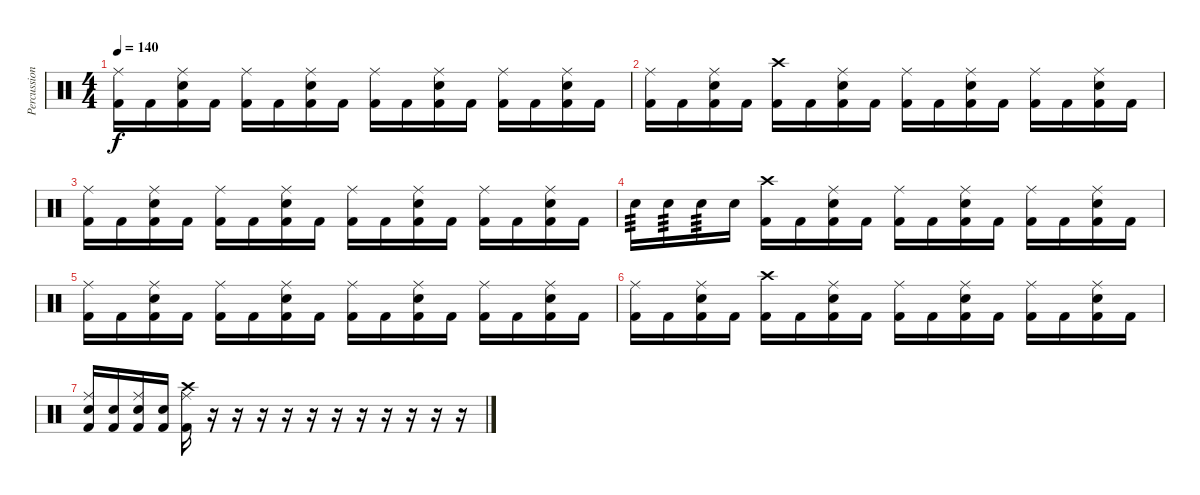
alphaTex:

\track ("Percussion" "Percussion") {instrument percussion}
\staff {score}
\articulation defaults
\ts (4 4)
\tempo 140
\clef neutral
\ks c
("Kick (hit) 2" "Ride (middle)").16{dy f} "Kick (hit) 2".16 ("Kick (hit) 2" "Electric Snare (hit)" "Ride (middle)").16 "Kick (hit) 2".16 ("Kick (hit) 2" "Ride (middle)").16 "Kick (hit) 2".16 ("Kick (hit) 2" "Electric Snare (hit)" "Ride (middle)").16 "Kick (hit) 2".16 ("Kick (hit) 2" "Ride (middle)").16 "Kick (hit) 2".16 ("Kick (hit) 2" "Electric Snare (hit)" "Ride (middle)").16 "Kick (hit) 2".16 ("Kick (hit) 2" "Ride (middle)").16 "Kick (hit) 2".16 ("Kick (hit) 2" "Electric Snare (hit)" "Ride (middle)").16 "Kick (hit) 2".16 |
("Kick (hit) 2" "Ride (middle)").16 "Kick (hit) 2".16 ("Kick (hit) 2" "Electric Snare (hit)" "Ride (middle)").16 "Kick (hit) 2".16 ("Kick (hit) 2" "Crash high (hit)").16 "Kick (hit) 2".16 ("Kick (hit) 2" "Electric Snare (hit)" "Ride (middle)").16 "Kick (hit) 2".16 ("Kick (hit) 2" "Ride (middle)").16 "Kick (hit) 2".16 ("Kick (hit) 2" "Electric Snare (hit)" "Ride (middle)").16 "Kick (hit) 2".16 ("Kick (hit) 2" "Ride (middle)").16 "Kick (hit) 2".16 ("Kick (hit) 2" "Electric Snare (hit)" "Ride (middle)").16 "Kick (hit) 2".16 |
("Kick (hit) 2" "Ride (middle)").16 "Kick (hit) 2".16 ("Kick (hit) 2" "Electric Snare (hit)" "Ride (middle)").16 "Kick (hit) 2".16 ("Kick (hit) 2" "Ride (middle)").16 "Kick (hit) 2".16 ("Kick (hit) 2" "Electric Snare (hit)" "Ride (middle)").16 "Kick (hit) 2".16 ("Kick (hit) 2" "Ride (middle)").16 "Kick (hit) 2".16 ("Kick (hit) 2" "Electric Snare (hit)" "Ride (middle)").16 "Kick (hit) 2".16 ("Kick (hit) 2" "Ride (middle)").16 "Kick (hit) 2".16 ("Kick (hit) 2" "Electric Snare (hit)" "Ride (middle)").16 "Kick (hit) 2".16 |
"Electric Snare (hit)".16{tp 3} "Electric Snare (hit)".16{tp 3} "Electric Snare (hit)".16{tp 3} "Electric Snare (hit)".16 ("Kick (hit) 2" "Crash high (hit)").16 "Kick (hit) 2".16 ("Kick (hit) 2" "Electric Snare (hit)" "Ride (middle)").16 "Kick (hit) 2".16 ("Kick (hit) 2" "Ride (middle)").16 "Kick (hit) 2".16 ("Kick (hit) 2" "Electric Snare (hit)" "Ride (middle)").16 "Kick (hit) 2".16 ("Kick (hit) 2" "Ride (middle)").16 "Kick (hit) 2".16 ("Kick (hit) 2" "Electric Snare (hit)" "Ride (middle)").16 "Kick (hit) 2".16 |
("Kick (hit) 2" "Ride (middle)").16 "Kick (hit) 2".16 ("Kick (hit) 2" "Electric Snare (hit)" "Ride (middle)").16 "Kick (hit) 2".16 ("Kick (hit) 2" "Ride (middle)").16 "Kick (hit) 2".16 ("Kick (hit) 2" "Electric Snare (hit)" "Ride (middle)").16 "Kick (hit) 2".16 ("Kick (hit) 2" "Ride (middle)").16 "Kick (hit) 2".16 ("Kick (hit) 2" "Electric Snare (hit)" "Ride (middle)").16 "Kick (hit) 2".16 ("Kick (hit) 2" "Ride (middle)").16 "Kick (hit) 2".16 ("Kick (hit) 2" "Electric Snare (hit)" "Ride (middle)").16 "Kick (hit) 2".16 |
("Kick (hit) 2" "Ride (middle)").16 "Kick (hit) 2".16 ("Kick (hit) 2" "Electric Snare (hit)" "Ride (middle)").16 "Kick (hit) 2".16 ("Kick (hit) 2" "Crash high (hit)").16 "Kick (hit) 2".16 ("Kick (hit) 2" "Electric Snare (hit)" "Ride (middle)").16 "Kick (hit) 2".16 ("Kick (hit) 2" "Ride (middle)").16 "Kick (hit) 2".16 ("Kick (hit) 2" "Electric Snare (hit)" "Ride (middle)").16 "Kick (hit) 2".16 ("Kick (hit) 2" "Ride (middle)").16 "Kick (hit) 2".16 ("Kick (hit) 2" "Electric Snare (hit)" "Ride (middle)").16 "Kick (hit) 2".16 |
("Kick (hit) 2" "Electric Snare (hit)" "Ride (middle)").16 ("Kick (hit) 2" "Electric Snare (hit)").16 ("Kick (hit) 2" "Electric Snare (hit)" "Ride (middle)").16 ("Kick (hit) 2" "Electric Snare (hit)").16 ("Kick (hit) 2" "Ride (middle)" "Crash high (hit)").16 r.16 r.16 r.16 r.16 r.16 r.16 r.16 r.16 r.16 r.16 r.16
